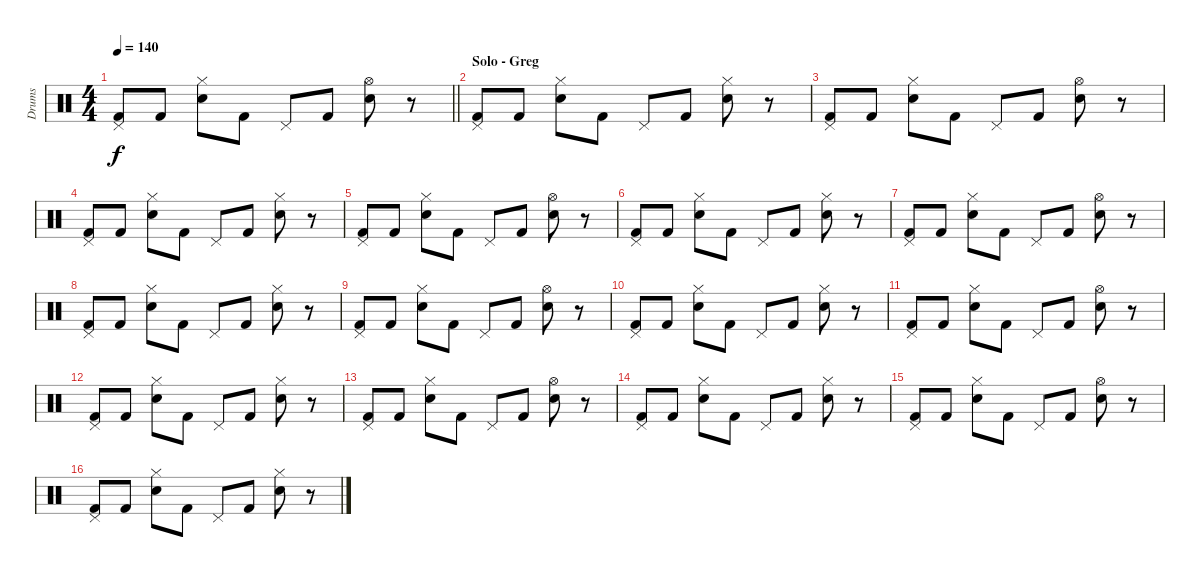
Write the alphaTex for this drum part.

\track ("Drums" "Drums") {instrument percussion bank 127}
\staff {score}
\articulation defaults
\ts (4 4)
\tempo 140
\clef neutral
\barLineRight lightlight
\ks c
("Pedal Hi-Hat (hit)" "Kick (hit) 2").8{dy f} "Kick (hit) 2".8 ("Hi-Hat (closed)" "Electric Snare (hit)").8 "Kick (hit) 2".8 "Pedal Hi-Hat (hit)".8 "Kick (hit) 2".8 ("Hi-Hat (open)" "Electric Snare (hit)").8 r.8 |
\section ("" "Solo - Greg")
("Pedal Hi-Hat (hit)" "Kick (hit) 2").8 "Kick (hit) 2".8 ("Hi-Hat (closed)" "Electric Snare (hit)").8 "Kick (hit) 2".8 "Pedal Hi-Hat (hit)".8 "Kick (hit) 2".8 ("Hi-Hat (closed)" "Electric Snare (hit)").8 r.8 |
("Pedal Hi-Hat (hit)" "Kick (hit) 2").8 "Kick (hit) 2".8 ("Hi-Hat (closed)" "Electric Snare (hit)").8 "Kick (hit) 2".8 "Pedal Hi-Hat (hit)".8 "Kick (hit) 2".8 ("Hi-Hat (open)" "Electric Snare (hit)").8 r.8 |
("Pedal Hi-Hat (hit)" "Kick (hit) 2").8 "Kick (hit) 2".8 ("Hi-Hat (closed)" "Electric Snare (hit)").8 "Kick (hit) 2".8 "Pedal Hi-Hat (hit)".8 "Kick (hit) 2".8 ("Hi-Hat (closed)" "Electric Snare (hit)").8 r.8 |
("Pedal Hi-Hat (hit)" "Kick (hit) 2").8 "Kick (hit) 2".8 ("Hi-Hat (closed)" "Electric Snare (hit)").8 "Kick (hit) 2".8 "Pedal Hi-Hat (hit)".8 "Kick (hit) 2".8 ("Hi-Hat (open)" "Electric Snare (hit)").8 r.8 |
("Pedal Hi-Hat (hit)" "Kick (hit) 2").8 "Kick (hit) 2".8 ("Hi-Hat (closed)" "Electric Snare (hit)").8 "Kick (hit) 2".8 "Pedal Hi-Hat (hit)".8 "Kick (hit) 2".8 ("Hi-Hat (closed)" "Electric Snare (hit)").8 r.8 |
("Pedal Hi-Hat (hit)" "Kick (hit) 2").8 "Kick (hit) 2".8 ("Hi-Hat (closed)" "Electric Snare (hit)").8 "Kick (hit) 2".8 "Pedal Hi-Hat (hit)".8 "Kick (hit) 2".8 ("Hi-Hat (open)" "Electric Snare (hit)").8 r.8 |
("Pedal Hi-Hat (hit)" "Kick (hit) 2").8 "Kick (hit) 2".8 ("Hi-Hat (closed)" "Electric Snare (hit)").8 "Kick (hit) 2".8 "Pedal Hi-Hat (hit)".8 "Kick (hit) 2".8 ("Hi-Hat (closed)" "Electric Snare (hit)").8 r.8 |
("Pedal Hi-Hat (hit)" "Kick (hit) 2").8 "Kick (hit) 2".8 ("Hi-Hat (closed)" "Electric Snare (hit)").8 "Kick (hit) 2".8 "Pedal Hi-Hat (hit)".8 "Kick (hit) 2".8 ("Hi-Hat (open)" "Electric Snare (hit)").8 r.8 |
("Pedal Hi-Hat (hit)" "Kick (hit) 2").8 "Kick (hit) 2".8 ("Hi-Hat (closed)" "Electric Snare (hit)").8 "Kick (hit) 2".8 "Pedal Hi-Hat (hit)".8 "Kick (hit) 2".8 ("Hi-Hat (closed)" "Electric Snare (hit)").8 r.8 |
("Pedal Hi-Hat (hit)" "Kick (hit) 2").8 "Kick (hit) 2".8 ("Hi-Hat (closed)" "Electric Snare (hit)").8 "Kick (hit) 2".8 "Pedal Hi-Hat (hit)".8 "Kick (hit) 2".8 ("Hi-Hat (open)" "Electric Snare (hit)").8 r.8 |
("Pedal Hi-Hat (hit)" "Kick (hit) 2").8 "Kick (hit) 2".8 ("Hi-Hat (closed)" "Electric Snare (hit)").8 "Kick (hit) 2".8 "Pedal Hi-Hat (hit)".8 "Kick (hit) 2".8 ("Hi-Hat (closed)" "Electric Snare (hit)").8 r.8 |
("Pedal Hi-Hat (hit)" "Kick (hit) 2").8 "Kick (hit) 2".8 ("Hi-Hat (closed)" "Electric Snare (hit)").8 "Kick (hit) 2".8 "Pedal Hi-Hat (hit)".8 "Kick (hit) 2".8 ("Hi-Hat (open)" "Electric Snare (hit)").8 r.8 |
("Pedal Hi-Hat (hit)" "Kick (hit) 2").8 "Kick (hit) 2".8 ("Hi-Hat (closed)" "Electric Snare (hit)").8 "Kick (hit) 2".8 "Pedal Hi-Hat (hit)".8 "Kick (hit) 2".8 ("Hi-Hat (closed)" "Electric Snare (hit)").8 r.8 |
("Pedal Hi-Hat (hit)" "Kick (hit) 2").8 "Kick (hit) 2".8 ("Hi-Hat (closed)" "Electric Snare (hit)").8 "Kick (hit) 2".8 "Pedal Hi-Hat (hit)".8 "Kick (hit) 2".8 ("Hi-Hat (open)" "Electric Snare (hit)").8 r.8 |
("Pedal Hi-Hat (hit)" "Kick (hit) 2").8 "Kick (hit) 2".8 ("Hi-Hat (closed)" "Electric Snare (hit)").8 "Kick (hit) 2".8 "Pedal Hi-Hat (hit)".8 "Kick (hit) 2".8 ("Hi-Hat (closed)" "Electric Snare (hit)").8 r.8
